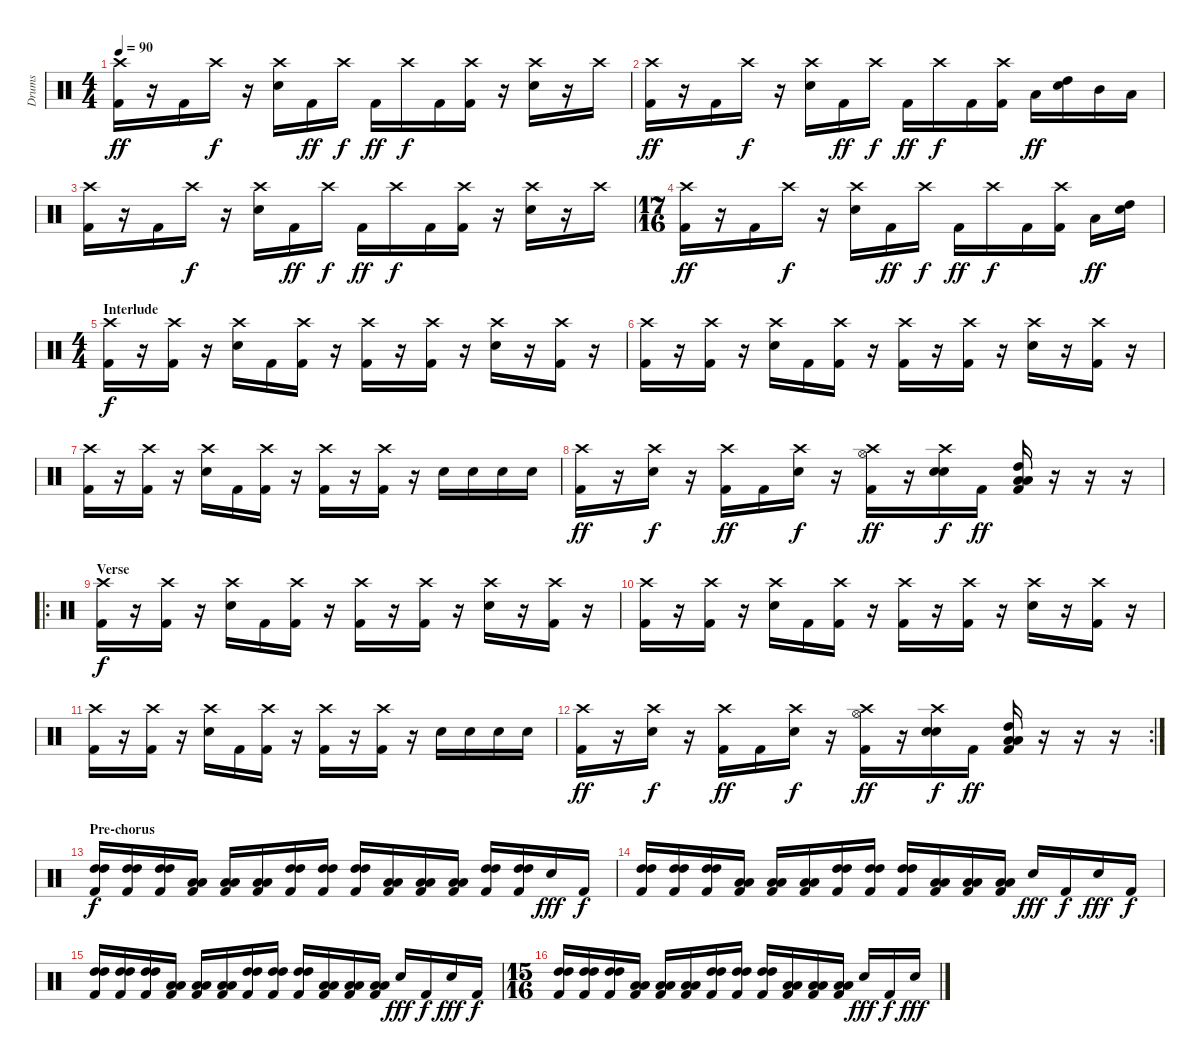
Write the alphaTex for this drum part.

\track ("Drums" "Drums") {instrument percussion}
\staff {score}
\articulation defaults
\ts (4 4)
\tempo 90
\clef neutral
\ks c
("Crash high (hit)" "Kick (hit) 2").16{dy ff} r.16 "Kick (hit) 2".16 "Crash high (hit)".16{dy f} r.16 ("Crash high (hit)" "Electric Snare (hit)").16 "Kick (hit) 2".16{dy ff} "Crash high (hit)".16{dy f} "Kick (hit) 2".16{dy ff} "Crash high (hit)".16{dy f} "Kick (hit) 2".16 ("Crash high (hit)" "Kick (hit) 2").16 r.16 ("Crash high (hit)" "Electric Snare (hit)").16 r.16 "Crash high (hit)".16 |
("Crash high (hit)" "Kick (hit) 2").16{dy ff} r.16 "Kick (hit) 2".16 "Crash high (hit)".16{dy f} r.16 ("Crash high (hit)" "Electric Snare (hit)").16 "Kick (hit) 2".16{dy ff} "Crash high (hit)".16{dy f} "Kick (hit) 2".16{dy ff} "Crash high (hit)".16{dy f} "Kick (hit) 2".16 ("Crash high (hit)" "Kick (hit) 2").16 "Low Tom (hit)".16{dy ff} ("High Tom (hit)" "Electric Snare (hit)").16 "Mid Tom (hit)".16 "Low Tom (hit)".16 |
("Crash high (hit)" "Kick (hit) 2").16 r.16 "Kick (hit) 2".16 "Crash high (hit)".16{dy f} r.16 ("Crash high (hit)" "Electric Snare (hit)").16 "Kick (hit) 2".16{dy ff} "Crash high (hit)".16{dy f} "Kick (hit) 2".16{dy ff} "Crash high (hit)".16{dy f} "Kick (hit) 2".16 ("Crash high (hit)" "Kick (hit) 2").16 r.16 ("Crash high (hit)" "Electric Snare (hit)").16 r.16 "Crash high (hit)".16 |
\ts (17 16)
("Crash high (hit)" "Kick (hit) 2").16{dy ff} r.16 "Kick (hit) 2".16 "Crash high (hit)".16{dy f} r.16 ("Crash high (hit)" "Electric Snare (hit)").16 "Kick (hit) 2".16{dy ff} "Crash high (hit)".16{dy f} "Kick (hit) 2".16{dy ff} "Crash high (hit)".16{dy f} "Kick (hit) 2".16 ("Crash high (hit)" "Kick (hit) 2").16 "Low Tom (hit)".16{dy ff} ("High Tom (hit)" "Electric Snare (hit)").16 |
\ts (4 4)
\section ("" "Interlude")
("Crash high (hit)" "Kick (hit) 2").16{dy f} r.16 ("Crash high (hit)" "Kick (hit) 2").16 r.16 ("Crash high (hit)" "Electric Snare (hit)").16 "Kick (hit) 2".16 ("Crash high (hit)" "Kick (hit) 2").16 r.16 ("Crash high (hit)" "Kick (hit) 2").16 r.16 ("Crash high (hit)" "Kick (hit) 2").16 r.16 ("Crash high (hit)" "Electric Snare (hit)").16 r.16 ("Crash high (hit)" "Kick (hit) 2").16 r.16 |
("Crash high (hit)" "Kick (hit) 2").16 r.16 ("Crash high (hit)" "Kick (hit) 2").16 r.16 ("Crash high (hit)" "Electric Snare (hit)").16 "Kick (hit) 2".16 ("Crash high (hit)" "Kick (hit) 2").16 r.16 ("Crash high (hit)" "Kick (hit) 2").16 r.16 ("Crash high (hit)" "Kick (hit) 2").16 r.16 ("Crash high (hit)" "Electric Snare (hit)").16 r.16 ("Crash high (hit)" "Kick (hit) 2").16 r.16 |
("Crash high (hit)" "Kick (hit) 2").16 r.16 ("Crash high (hit)" "Kick (hit) 2").16 r.16 ("Crash high (hit)" "Electric Snare (hit)").16 "Kick (hit) 2".16 ("Crash high (hit)" "Kick (hit) 2").16 r.16 ("Crash high (hit)" "Kick (hit) 2").16 r.16 ("Crash high (hit)" "Kick (hit) 2").16 r.16 "Electric Snare (hit)".16 "Electric Snare (hit)".16 "Electric Snare (hit)".16 "Electric Snare (hit)".16 |
("Crash high (hit)" "Kick (hit) 2").16{dy ff} r.16 ("Crash high (hit)" "Electric Snare (hit)").16{dy f} r.16 ("Crash high (hit)" "Kick (hit) 2").16{dy ff} "Kick (hit) 2".16 ("Crash high (hit)" "Electric Snare (hit)").16{dy f} r.16 ("Crash high (hit)" "Hi-Hat (open)" "Kick (hit) 2").16{dy ff} r.16 ("Crash high (hit)" "Electric Snare (hit)" "Electric Snare (hit)").16{dy f} "Kick (hit) 2".16{dy ff} ("Low Tom (hit)" "High Tom (hit)" "Low Tom (hit)" "Kick (hit) 2").16 r.16 r.16 r.16 |
\ro
\section ("" "Verse")
("Crash high (hit)" "Kick (hit) 2").16{dy f} r.16 ("Crash high (hit)" "Kick (hit) 2").16 r.16 ("Crash high (hit)" "Electric Snare (hit)").16 "Kick (hit) 2".16 ("Crash high (hit)" "Kick (hit) 2").16 r.16 ("Crash high (hit)" "Kick (hit) 2").16 r.16 ("Crash high (hit)" "Kick (hit) 2").16 r.16 ("Crash high (hit)" "Electric Snare (hit)").16 r.16 ("Crash high (hit)" "Kick (hit) 2").16 r.16 |
("Crash high (hit)" "Kick (hit) 2").16 r.16 ("Crash high (hit)" "Kick (hit) 2").16 r.16 ("Crash high (hit)" "Electric Snare (hit)").16 "Kick (hit) 2".16 ("Crash high (hit)" "Kick (hit) 2").16 r.16 ("Crash high (hit)" "Kick (hit) 2").16 r.16 ("Crash high (hit)" "Kick (hit) 2").16 r.16 ("Crash high (hit)" "Electric Snare (hit)").16 r.16 ("Crash high (hit)" "Kick (hit) 2").16 r.16 |
("Crash high (hit)" "Kick (hit) 2").16 r.16 ("Crash high (hit)" "Kick (hit) 2").16 r.16 ("Crash high (hit)" "Electric Snare (hit)").16 "Kick (hit) 2".16 ("Crash high (hit)" "Kick (hit) 2").16 r.16 ("Crash high (hit)" "Kick (hit) 2").16 r.16 ("Crash high (hit)" "Kick (hit) 2").16 r.16 "Electric Snare (hit)".16 "Electric Snare (hit)".16 "Electric Snare (hit)".16 "Electric Snare (hit)".16 |
\rc 2
("Crash high (hit)" "Kick (hit) 2").16{dy ff} r.16 ("Crash high (hit)" "Electric Snare (hit)").16{dy f} r.16 ("Crash high (hit)" "Kick (hit) 2").16{dy ff} "Kick (hit) 2".16 ("Crash high (hit)" "Electric Snare (hit)").16{dy f} r.16 ("Crash high (hit)" "Hi-Hat (open)" "Kick (hit) 2").16{dy ff} r.16 ("Crash high (hit)" "Electric Snare (hit)" "Electric Snare (hit)").16{dy f} "Kick (hit) 2".16{dy ff} ("Low Tom (hit)" "High Tom (hit)" "Low Tom (hit)" "Kick (hit) 2").16 r.16 r.16 r.16 |
\section ("" "Pre-chorus")
("High Tom (hit)" "High Tom (hit)" "Kick (hit) 2").16{dy f} ("High Tom (hit)" "High Tom (hit)" "Kick (hit) 2").16 ("High Tom (hit)" "High Tom (hit)" "Kick (hit) 2").16 ("Low Tom (hit)" "Low Tom (hit)" "Kick (hit) 2").16 ("Low Tom (hit)" "Low Tom (hit)" "Kick (hit) 2").16 ("Low Tom (hit)" "Low Tom (hit)" "Kick (hit) 2").16 ("High Tom (hit)" "High Tom (hit)" "Kick (hit) 2").16 ("High Tom (hit)" "High Tom (hit)" "Kick (hit) 2").16 ("High Tom (hit)" "High Tom (hit)" "Kick (hit) 2").16 ("Low Tom (hit)" "Low Tom (hit)" "Kick (hit) 2").16 ("Low Tom (hit)" "Low Tom (hit)" "Kick (hit) 2").16 ("Low Tom (hit)" "Low Tom (hit)" "Kick (hit) 2").16 ("High Tom (hit)" "High Tom (hit)" "Kick (hit) 2").16 ("High Tom (hit)" "High Tom (hit)" "Kick (hit) 2").16 "Electric Snare (hit)".16{dy fff} "Kick (hit) 2".16{dy f} |
("High Tom (hit)" "High Tom (hit)" "Kick (hit) 2").16 ("High Tom (hit)" "High Tom (hit)" "Kick (hit) 2").16 ("High Tom (hit)" "High Tom (hit)" "Kick (hit) 2").16 ("Low Tom (hit)" "Low Tom (hit)" "Kick (hit) 2").16 ("Low Tom (hit)" "Low Tom (hit)" "Kick (hit) 2").16 ("Low Tom (hit)" "Low Tom (hit)" "Kick (hit) 2").16 ("High Tom (hit)" "High Tom (hit)" "Kick (hit) 2").16 ("High Tom (hit)" "High Tom (hit)" "Kick (hit) 2").16 ("High Tom (hit)" "High Tom (hit)" "Kick (hit) 2").16 ("Low Tom (hit)" "Low Tom (hit)" "Kick (hit) 2").16 ("Low Tom (hit)" "Low Tom (hit)" "Kick (hit) 2").16 ("Low Tom (hit)" "Low Tom (hit)" "Kick (hit) 2").16 "Electric Snare (hit)".16{dy fff} "Kick (hit) 2".16{dy f} "Electric Snare (hit)".16{dy fff} "Kick (hit) 2".16{dy f} |
("High Tom (hit)" "High Tom (hit)" "Kick (hit) 2").16 ("High Tom (hit)" "High Tom (hit)" "Kick (hit) 2").16 ("High Tom (hit)" "High Tom (hit)" "Kick (hit) 2").16 ("Low Tom (hit)" "Low Tom (hit)" "Kick (hit) 2").16 ("Low Tom (hit)" "Low Tom (hit)" "Kick (hit) 2").16 ("Low Tom (hit)" "Low Tom (hit)" "Kick (hit) 2").16 ("High Tom (hit)" "High Tom (hit)" "Kick (hit) 2").16 ("High Tom (hit)" "High Tom (hit)" "Kick (hit) 2").16 ("High Tom (hit)" "High Tom (hit)" "Kick (hit) 2").16 ("Low Tom (hit)" "Low Tom (hit)" "Kick (hit) 2").16 ("Low Tom (hit)" "Low Tom (hit)" "Kick (hit) 2").16 ("Low Tom (hit)" "Low Tom (hit)" "Kick (hit) 2").16 "Electric Snare (hit)".16{dy fff} "Kick (hit) 2".16{dy f} "Electric Snare (hit)".16{dy fff} "Kick (hit) 2".16{dy f} |
\ts (15 16)
("High Tom (hit)" "High Tom (hit)" "Kick (hit) 2").16 ("High Tom (hit)" "High Tom (hit)" "Kick (hit) 2").16 ("High Tom (hit)" "High Tom (hit)" "Kick (hit) 2").16 ("Low Tom (hit)" "Low Tom (hit)" "Kick (hit) 2").16 ("Low Tom (hit)" "Low Tom (hit)" "Kick (hit) 2").16 ("Low Tom (hit)" "Low Tom (hit)" "Kick (hit) 2").16 ("High Tom (hit)" "High Tom (hit)" "Kick (hit) 2").16 ("High Tom (hit)" "High Tom (hit)" "Kick (hit) 2").16 ("High Tom (hit)" "High Tom (hit)" "Kick (hit) 2").16 ("Low Tom (hit)" "Low Tom (hit)" "Kick (hit) 2").16 ("Low Tom (hit)" "Low Tom (hit)" "Kick (hit) 2").16 ("Low Tom (hit)" "Low Tom (hit)" "Kick (hit) 2").16 "Electric Snare (hit)".16{dy fff} "Kick (hit) 2".16{dy f} "Electric Snare (hit)".16{dy fff}
